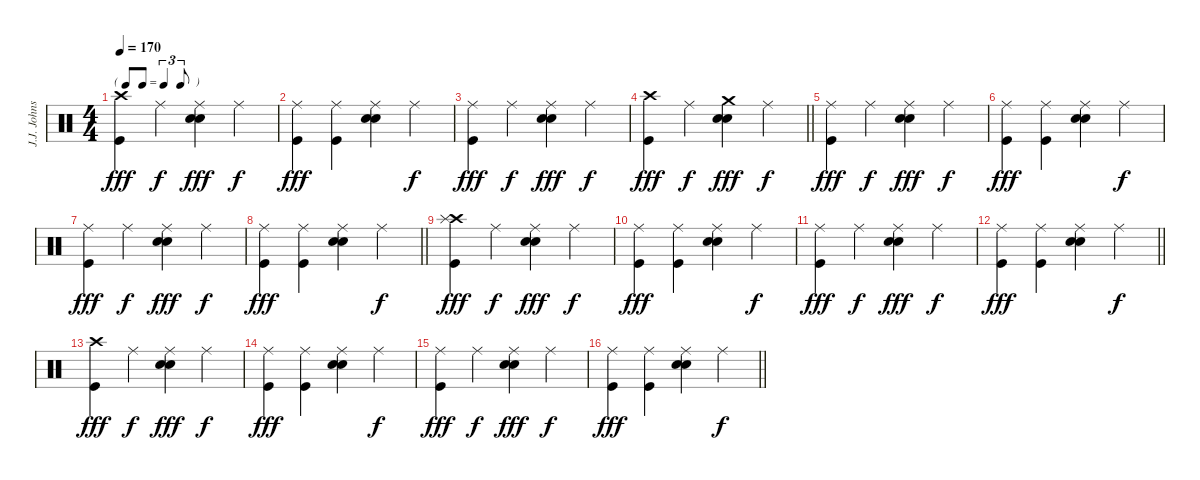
\track ("J.J. Johnson" "J.J. Johns") {instrument percussion}
\staff {score}
\articulation defaults
\ts (4 4)
\tf triplet8th
\tempo 170
\clef neutral
\ks c
("Crash high (hit)" "Kick (hit)").4{dy fff} "Ride (middle)".4{dy f} ("Ride (middle)" "Electric Snare (hit)" "Snare (hit) 2").4{dy fff} "Ride (middle)".4{dy f} |
("Ride (middle)" "Kick (hit)").4{dy fff} ("Ride (middle)" "Kick (hit)").4 ("Ride (middle)" "Snare (hit) 2" "Electric Snare (hit)").4 "Ride (middle)".4{dy f} |
("Ride (middle)" "Kick (hit)").4{dy fff} "Ride (middle)".4{dy f} ("Ride (middle)" "Electric Snare (hit)" "Snare (hit) 2").4{dy fff} "Ride (middle)".4{dy f} |
\barLineRight lightlight
("Crash high (hit)" "Kick (hit)").4{dy fff} "Ride (middle)".4{dy f} ("Crash medium (hit)" "Electric Snare (hit)" "Snare (hit) 2").4{dy fff} "Ride (middle)".4{dy f} |
("Ride (middle)" "Kick (hit)").4{dy fff} "Ride (middle)".4{dy f} ("Ride (middle)" "Electric Snare (hit)" "Snare (hit) 2").4{dy fff} "Ride (middle)".4{dy f} |
("Ride (middle)" "Kick (hit)").4{dy fff} ("Ride (middle)" "Kick (hit)").4 ("Ride (middle)" "Snare (hit) 2" "Electric Snare (hit)").4 "Ride (middle)".4{dy f} |
("Ride (middle)" "Kick (hit)").4{dy fff} "Ride (middle)".4{dy f} ("Ride (middle)" "Electric Snare (hit)" "Snare (hit) 2").4{dy fff} "Ride (middle)".4{dy f} |
\barLineRight lightlight
("Ride (middle)" "Kick (hit)").4{dy fff} ("Ride (middle)" "Kick (hit)").4 ("Ride (middle)" "Snare (hit) 2" "Electric Snare (hit)").4 "Ride (middle)".4{dy f} |
("Crash high (hit)" "Splash (hit)" "Kick (hit)").4{dy fff} "Ride (middle)".4{dy f} ("Ride (middle)" "Electric Snare (hit)" "Snare (hit) 2").4{dy fff} "Ride (middle)".4{dy f} |
("Ride (middle)" "Kick (hit)").4{dy fff} ("Ride (middle)" "Kick (hit)").4 ("Ride (middle)" "Snare (hit) 2" "Electric Snare (hit)").4 "Ride (middle)".4{dy f} |
("Ride (middle)" "Kick (hit)").4{dy fff} "Ride (middle)".4{dy f} ("Ride (middle)" "Electric Snare (hit)" "Snare (hit) 2").4{dy fff} "Ride (middle)".4{dy f} |
\barLineRight lightlight
("Ride (middle)" "Kick (hit)").4{dy fff} ("Ride (middle)" "Kick (hit)").4 ("Ride (middle)" "Snare (hit) 2" "Electric Snare (hit)").4 "Ride (middle)".4{dy f} |
("Crash high (hit)" "Kick (hit)").4{dy fff} "Ride (middle)".4{dy f} ("Ride (middle)" "Electric Snare (hit)" "Snare (hit) 2").4{dy fff} "Ride (middle)".4{dy f} |
("Ride (middle)" "Kick (hit)").4{dy fff} ("Ride (middle)" "Kick (hit)").4 ("Ride (middle)" "Snare (hit) 2" "Electric Snare (hit)").4 "Ride (middle)".4{dy f} |
("Ride (middle)" "Kick (hit)").4{dy fff} "Ride (middle)".4{dy f} ("Ride (middle)" "Electric Snare (hit)" "Snare (hit) 2").4{dy fff} "Ride (middle)".4{dy f} |
\barLineRight lightlight
("Ride (middle)" "Kick (hit)").4{dy fff} ("Ride (middle)" "Kick (hit)").4 ("Ride (middle)" "Snare (hit) 2" "Electric Snare (hit)").4 "Ride (middle)".4{dy f}
